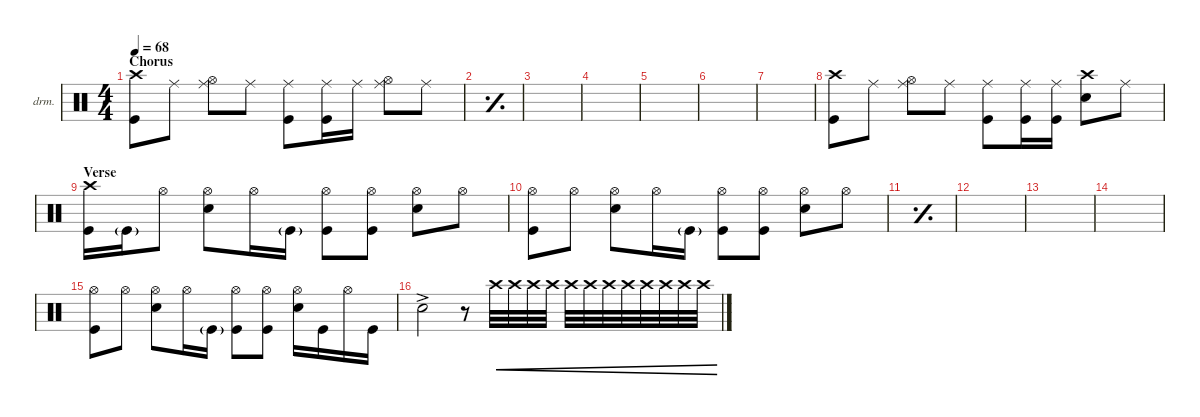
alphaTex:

\defaultSystemsLayout 4
\hideDynamics
\bracketExtendMode nobrackets
\firstSystemTrackNameOrientation horizontal
\track ("Drumkit" "drm.") {defaultSystemsLayout 4 instrument percussion}
\staff {score}
\articulation defaults
\ts (4 4)
\section ("" "Chorus")
\tempo 68
\clef neutral
\scale
0.265955
\ks c
("Kick (hit)" "Crash high (hit)").8{dy mf} "Ride (middle)".8 ("Hi-Hat (open)" "Ride (middle)").8 "Ride (middle)".8 ("Ride (middle)" "Kick (hit)").8 ("Ride (middle)" "Kick (hit)").16 "Ride (middle)".16 ("Hi-Hat (open)" "Ride (middle)").8 "Ride (middle)".8 |
\simile simple
\scale
0.244682 |
\scale
0.244682 |
\scale
0.244682 |
\scale
0.26485 |
\scale
0.243576 |
\scale
0.243576 |
\simile none
\scale
0.247997 ("Kick (hit)" "Crash high (hit)").8 "Ride (middle)".8 ("Hi-Hat (open)" "Ride (middle)").8 "Ride (middle)".8 ("Ride (middle)" "Kick (hit)").8 ("Ride (middle)" "Kick (hit)").16 ("Ride (middle)" "Kick (hit)").16 ("Snare (hit) 2" "Crash high (hit)").8 "Ride (middle)".8 |
\section ("" "Verse")
\scale
0.265955 ("Kick (hit)" "Crash high (hit)").16 "Kick (hit)"{g}.16 "Hi-Hat (open)".8 ("Hi-Hat (open)" "Snare (hit) 2").8 "Hi-Hat (open)".16 "Kick (hit)"{g}.16 ("Kick (hit)" "Hi-Hat (open)").8 ("Kick (hit)" "Hi-Hat (open)").8 ("Hi-Hat (open)" "Snare (hit) 2").8 "Hi-Hat (open)".8 |
\scale
0.244682 ("Kick (hit)" "Hi-Hat (open)").8 "Hi-Hat (open)".8 ("Hi-Hat (open)" "Snare (hit) 2").8 "Hi-Hat (open)".16 "Kick (hit)"{g}.16 ("Kick (hit)" "Hi-Hat (open)").8 ("Kick (hit)" "Hi-Hat (open)").8 ("Hi-Hat (open)" "Snare (hit) 2").8 "Hi-Hat (open)".8 |
\simile simple
\scale
0.244682 |
\scale
0.244682 |
\scale
0.26485 |
\scale
0.243576 |
\simile none
\scale
0.243576 ("Kick (hit)" "Hi-Hat (open)").8 "Hi-Hat (open)".8 ("Hi-Hat (open)" "Snare (hit) 2").8 "Hi-Hat (open)".16 "Kick (hit)"{g}.16 ("Kick (hit)" "Hi-Hat (open)").8 ("Kick (hit)" "Hi-Hat (open)").8 ("Hi-Hat (open)" "Snare (hit) 2").16 "Kick (hit)".16 "Hi-Hat (open)".16 "Kick (hit)".16 |
\scale
0.247997 "Snare (hit) 2"{ac}.2 r.8 "Crash high (hit)".32{cre} "Crash high (hit)".32{cre} "Crash high (hit)".32{cre} "Crash high (hit)".32{cre} "Crash high (hit)".32{cre} "Crash high (hit)".32{cre} "Crash high (hit)".32{cre} "Crash high (hit)".32{cre} "Crash high (hit)".32{cre} "Crash high (hit)".32{cre} "Crash high (hit)".32{cre} "Crash high (hit)".32{cre}
